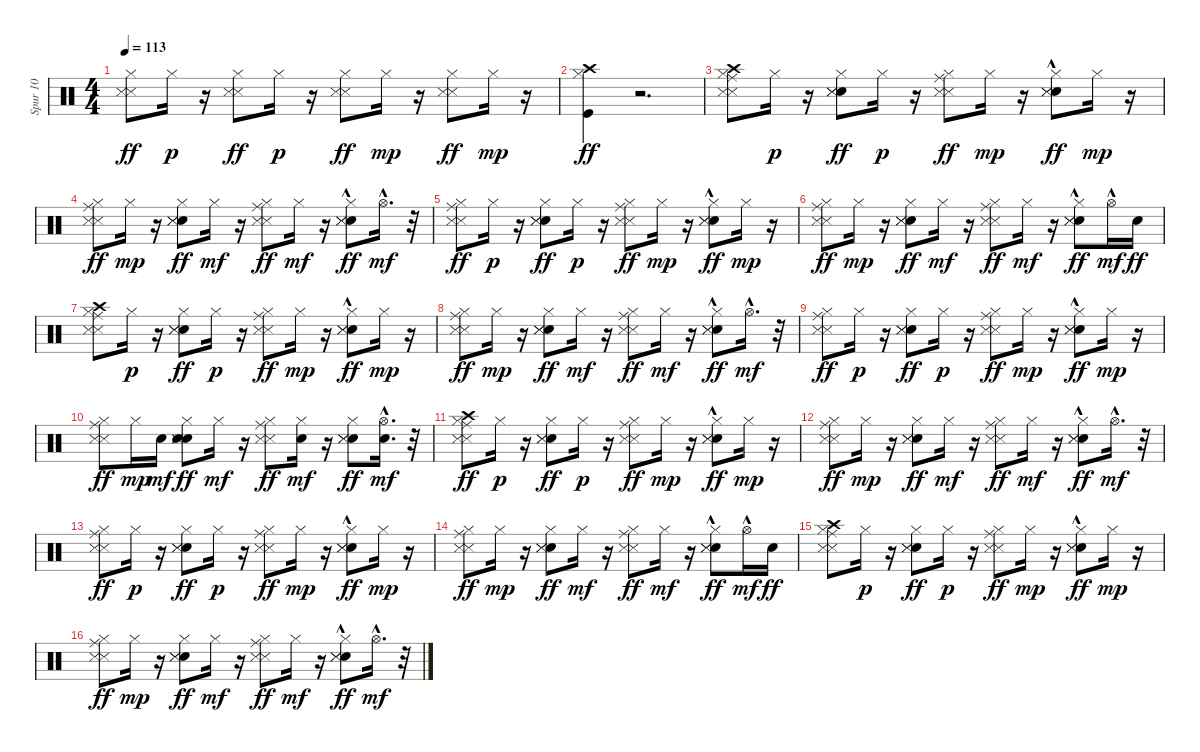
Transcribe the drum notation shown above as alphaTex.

\track ("Spur 10" "Spur 10") {instrument percussion}
\staff {score}
\articulation defaults
\ts (4 4)
\tempo 113
\clef neutral
\ks c
("Hi-Hat (closed)" "Snare (side stick) 3" "Snare (side stick) 3").8{dy ff} "Hi-Hat (closed)".16{dy p} r.16 ("Hi-Hat (closed)" "Snare (side stick) 3" "Snare (side stick) 3").8{dy ff} "Hi-Hat (closed)".16{dy p} r.16 ("Hi-Hat (closed)" "Snare (side stick) 3" "Snare (side stick) 3").8{dy ff} "Hi-Hat (closed)".16{dy mp} r.16 ("Hi-Hat (closed)" "Snare (side stick) 3" "Snare (side stick) 3").8{dy ff} "Hi-Hat (closed)".16{dy mp} r.16 |
("Hi-Hat (closed)" "Kick (hit)" "Crash high (hit)").4{dy ff} r.2{d} |
("Ride (middle)" "Crash high (hit)" "Hi-Hat (closed)" "Snare (side stick) 3" "Snare (side stick) 3").8 "Hi-Hat (closed)".16{dy p} r.16 ("Hi-Hat (closed)" "Metronome (bell)" "Snare (side stick) 3" "Snare (side stick) 3").8{dy ff} "Hi-Hat (closed)".16{dy p} r.16 ("Hi-Hat (closed)" "Ride (middle)" "Snare (side stick) 3" "Snare (side stick) 3").8{dy ff} "Hi-Hat (closed)".16{dy mp} r.16 ("Hi-Hat (closed)" "Metronome (bell)"{hac} "Snare (side stick) 3" "Snare (side stick) 3").8{dy ff} "Hi-Hat (closed)".16{dy mp} r.16 |
("Hi-Hat (closed)" "Ride (middle)" "Snare (side stick) 3" "Snare (side stick) 3").8{dy ff} "Hi-Hat (closed)".16{dy mp} r.16 ("Hi-Hat (closed)" "Metronome (bell)" "Snare (side stick) 3" "Snare (side stick) 3").8{dy ff} "Hi-Hat (closed)".16{dy mf} r.16 ("Hi-Hat (closed)" "Ride (middle)" "Snare (side stick) 3" "Snare (side stick) 3").8{dy ff} "Hi-Hat (closed)".16{dy mf} r.16 ("Metronome (bell)"{hac} "Snare (side stick) 3" "Snare (side stick) 3" "Hi-Hat (closed)").8{dy ff} "Hi-Hat (open)"{hac}.16{d dy mf} r.32 |
("Ride (middle)" "Hi-Hat (closed)" "Snare (side stick) 3" "Snare (side stick) 3").8{dy ff} "Hi-Hat (closed)".16{dy p} r.16 ("Hi-Hat (closed)" "Metronome (bell)" "Snare (side stick) 3" "Snare (side stick) 3").8{dy ff} "Hi-Hat (closed)".16{dy p} r.16 ("Hi-Hat (closed)" "Ride (middle)" "Snare (side stick) 3" "Snare (side stick) 3").8{dy ff} "Hi-Hat (closed)".16{dy mp} r.16 ("Hi-Hat (closed)" "Metronome (bell)"{hac} "Snare (side stick) 3" "Snare (side stick) 3").8{dy ff} "Hi-Hat (closed)".16{dy mp} r.16 |
("Hi-Hat (closed)" "Ride (middle)" "Snare (side stick) 3" "Snare (side stick) 3").8{dy ff} "Hi-Hat (closed)".16{dy mp} r.16 ("Hi-Hat (closed)" "Metronome (bell)" "Snare (side stick) 3" "Snare (side stick) 3").8{dy ff} "Hi-Hat (closed)".16{dy mf} r.16 ("Hi-Hat (closed)" "Ride (middle)" "Snare (side stick) 3" "Snare (side stick) 3").8{dy ff} "Hi-Hat (closed)".16{dy mf} r.16 ("Metronome (bell)"{hac} "Snare (side stick) 3" "Snare (side stick) 3" "Hi-Hat (closed)").8{dy ff} "Hi-Hat (open)"{hac}.16{dy mf} "Metronome (bell)".16{dy ff} |
("Ride (middle)" "Hi-Hat (closed)" "Snare (side stick) 3" "Snare (side stick) 3" "Crash high (hit)").8 "Hi-Hat (closed)".16{dy p} r.16 ("Hi-Hat (closed)" "Metronome (bell)" "Snare (side stick) 3" "Snare (side stick) 3").8{dy ff} "Hi-Hat (closed)".16{dy p} r.16 ("Hi-Hat (closed)" "Ride (middle)" "Snare (side stick) 3" "Snare (side stick) 3").8{dy ff} "Hi-Hat (closed)".16{dy mp} r.16 ("Hi-Hat (closed)" "Metronome (bell)"{hac} "Snare (side stick) 3" "Snare (side stick) 3").8{dy ff} "Hi-Hat (closed)".16{dy mp} r.16 |
("Hi-Hat (closed)" "Ride (middle)" "Snare (side stick) 3" "Snare (side stick) 3").8{dy ff} "Hi-Hat (closed)".16{dy mp} r.16 ("Hi-Hat (closed)" "Metronome (bell)" "Snare (side stick) 3" "Snare (side stick) 3").8{dy ff} "Hi-Hat (closed)".16{dy mf} r.16 ("Hi-Hat (closed)" "Ride (middle)" "Snare (side stick) 3" "Snare (side stick) 3").8{dy ff} "Hi-Hat (closed)".16{dy mf} r.16 ("Metronome (bell)"{hac} "Snare (side stick) 3" "Snare (side stick) 3" "Hi-Hat (closed)").8{dy ff} "Hi-Hat (open)"{hac}.16{d dy mf} r.32 |
("Ride (middle)" "Hi-Hat (closed)" "Snare (side stick) 3" "Snare (side stick) 3").8{dy ff} "Hi-Hat (closed)".16{dy p} r.16 ("Hi-Hat (closed)" "Metronome (bell)" "Snare (side stick) 3" "Snare (side stick) 3").8{dy ff} "Hi-Hat (closed)".16{dy p} r.16 ("Hi-Hat (closed)" "Ride (middle)" "Snare (side stick) 3" "Snare (side stick) 3").8{dy ff} "Hi-Hat (closed)".16{dy mp} r.16 ("Hi-Hat (closed)" "Metronome (bell)"{hac} "Snare (side stick) 3" "Snare (side stick) 3").8{dy ff} "Hi-Hat (closed)".16{dy mp} r.16 |
("Hi-Hat (closed)" "Ride (middle)" "Snare (side stick) 3" "Snare (side stick) 3").8{dy ff} "Hi-Hat (closed)".16{dy mp} "Metronome (bell)".16{dy mf} ("Hi-Hat (closed)" "Metronome (bell)" "Metronome (bell)" "Snare (side stick) 3" "Snare (side stick) 3").8{dy ff} "Hi-Hat (closed)".16{dy mf} r.16 ("Hi-Hat (closed)" "Ride (middle)" "Snare (side stick) 3" "Snare (side stick) 3").8{dy ff} ("Metronome (bell)" "Hi-Hat (closed)").16{dy mf} r.16 ("Metronome (bell)" "Snare (side stick) 3" "Snare (side stick) 3" "Hi-Hat (closed)").8{dy ff} ("Metronome (bell)" "Hi-Hat (open)"{hac}).16{d dy mf} r.32 |
("Ride (middle)" "Crash high (hit)" "Hi-Hat (closed)" "Snare (side stick) 3" "Snare (side stick) 3").8{dy ff} "Hi-Hat (closed)".16{dy p} r.16 ("Hi-Hat (closed)" "Metronome (bell)" "Snare (side stick) 3" "Snare (side stick) 3").8{dy ff} "Hi-Hat (closed)".16{dy p} r.16 ("Hi-Hat (closed)" "Ride (middle)" "Snare (side stick) 3" "Snare (side stick) 3").8{dy ff} "Hi-Hat (closed)".16{dy mp} r.16 ("Hi-Hat (closed)" "Metronome (bell)"{hac} "Snare (side stick) 3" "Snare (side stick) 3").8{dy ff} "Hi-Hat (closed)".16{dy mp} r.16 |
("Hi-Hat (closed)" "Ride (middle)" "Snare (side stick) 3" "Snare (side stick) 3").8{dy ff} "Hi-Hat (closed)".16{dy mp} r.16 ("Hi-Hat (closed)" "Metronome (bell)" "Snare (side stick) 3" "Snare (side stick) 3").8{dy ff} "Hi-Hat (closed)".16{dy mf} r.16 ("Hi-Hat (closed)" "Ride (middle)" "Snare (side stick) 3" "Snare (side stick) 3").8{dy ff} "Hi-Hat (closed)".16{dy mf} r.16 ("Metronome (bell)"{hac} "Snare (side stick) 3" "Snare (side stick) 3" "Hi-Hat (closed)").8{dy ff} "Hi-Hat (open)"{hac}.16{d dy mf} r.32 |
("Ride (middle)" "Hi-Hat (closed)" "Snare (side stick) 3" "Snare (side stick) 3").8{dy ff} "Hi-Hat (closed)".16{dy p} r.16 ("Hi-Hat (closed)" "Metronome (bell)" "Snare (side stick) 3" "Snare (side stick) 3").8{dy ff} "Hi-Hat (closed)".16{dy p} r.16 ("Hi-Hat (closed)" "Ride (middle)" "Snare (side stick) 3" "Snare (side stick) 3").8{dy ff} "Hi-Hat (closed)".16{dy mp} r.16 ("Hi-Hat (closed)" "Metronome (bell)"{hac} "Snare (side stick) 3" "Snare (side stick) 3").8{dy ff} "Hi-Hat (closed)".16{dy mp} r.16 |
("Hi-Hat (closed)" "Ride (middle)" "Snare (side stick) 3" "Snare (side stick) 3").8{dy ff} "Hi-Hat (closed)".16{dy mp} r.16 ("Hi-Hat (closed)" "Metronome (bell)" "Snare (side stick) 3" "Snare (side stick) 3").8{dy ff} "Hi-Hat (closed)".16{dy mf} r.16 ("Hi-Hat (closed)" "Ride (middle)" "Snare (side stick) 3" "Snare (side stick) 3").8{dy ff} "Hi-Hat (closed)".16{dy mf} r.16 ("Metronome (bell)"{hac} "Snare (side stick) 3" "Snare (side stick) 3" "Hi-Hat (closed)").8{dy ff} "Hi-Hat (open)"{hac}.16{dy mf} "Metronome (bell)".16{dy ff} |
("Ride (middle)" "Hi-Hat (closed)" "Snare (side stick) 3" "Snare (side stick) 3" "Crash high (hit)").8 "Hi-Hat (closed)".16{dy p} r.16 ("Hi-Hat (closed)" "Metronome (bell)" "Snare (side stick) 3" "Snare (side stick) 3").8{dy ff} "Hi-Hat (closed)".16{dy p} r.16 ("Hi-Hat (closed)" "Ride (middle)" "Snare (side stick) 3" "Snare (side stick) 3").8{dy ff} "Hi-Hat (closed)".16{dy mp} r.16 ("Hi-Hat (closed)" "Metronome (bell)"{hac} "Snare (side stick) 3" "Snare (side stick) 3").8{dy ff} "Hi-Hat (closed)".16{dy mp} r.16 |
("Hi-Hat (closed)" "Ride (middle)" "Snare (side stick) 3" "Snare (side stick) 3").8{dy ff} "Hi-Hat (closed)".16{dy mp} r.16 ("Hi-Hat (closed)" "Metronome (bell)" "Snare (side stick) 3" "Snare (side stick) 3").8{dy ff} "Hi-Hat (closed)".16{dy mf} r.16 ("Hi-Hat (closed)" "Ride (middle)" "Snare (side stick) 3" "Snare (side stick) 3").8{dy ff} "Hi-Hat (closed)".16{dy mf} r.16 ("Metronome (bell)"{hac} "Snare (side stick) 3" "Snare (side stick) 3" "Hi-Hat (closed)").8{dy ff} "Hi-Hat (open)"{hac}.16{d dy mf} r.32
